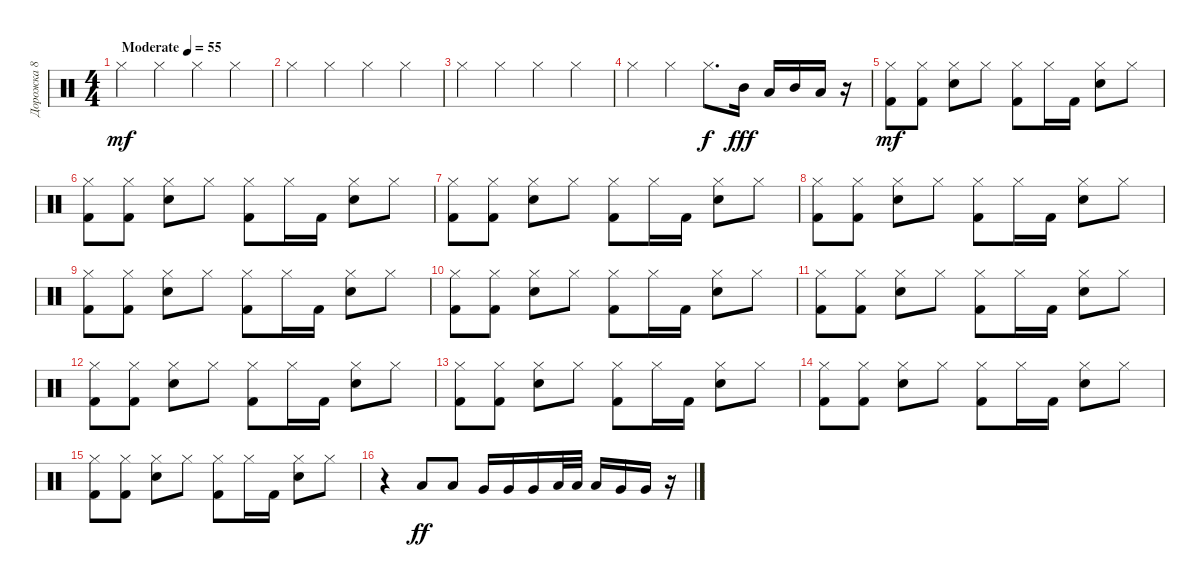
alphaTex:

\track ("Дорожка 8" "Дорожка 8") {instrument percussion}
\staff {score}
\articulation defaults
\ts (4 4)
\tempo (55 "Moderate")
\clef neutral
\ks aminor "Hi-Hat (closed)".4{dy mf} "Hi-Hat (closed)".4 "Hi-Hat (closed)".4 "Hi-Hat (closed)".4
|
"Hi-Hat (closed)".4 "Hi-Hat (closed)".4 "Hi-Hat (closed)".4 "Hi-Hat (closed)".4 |
"Hi-Hat (closed)".4 "Hi-Hat (closed)".4 "Hi-Hat (closed)".4 "Hi-Hat (closed)".4 |
"Hi-Hat (closed)".4 "Hi-Hat (closed)".4 "Hi-Hat (closed)".8{d dy f} "Mid Tom (hit)".16{dy fff} "Low Tom (hit)".16 "Mid Tom (hit)".16 "Low Tom (hit)".16 r.16 |
("Hi-Hat (closed)" "Kick (hit) 2").8{dy mf} ("Hi-Hat (closed)" "Kick (hit) 2").8 ("Hi-Hat (closed)" "Snare (hit) 2").8 "Hi-Hat (closed)".8 ("Hi-Hat (closed)" "Kick (hit) 2").8 "Hi-Hat (closed)".16 "Kick (hit) 2".16 ("Hi-Hat (closed)" "Snare (hit) 2").8 "Hi-Hat (closed)".8 |
("Hi-Hat (closed)" "Kick (hit) 2").8 ("Hi-Hat (closed)" "Kick (hit) 2").8 ("Hi-Hat (closed)" "Snare (hit) 2").8 "Hi-Hat (closed)".8 ("Hi-Hat (closed)" "Kick (hit) 2").8 "Hi-Hat (closed)".16 "Kick (hit) 2".16 ("Hi-Hat (closed)" "Snare (hit) 2").8 "Hi-Hat (closed)".8 |
("Hi-Hat (closed)" "Kick (hit) 2").8 ("Hi-Hat (closed)" "Kick (hit) 2").8 ("Hi-Hat (closed)" "Snare (hit) 2").8 "Hi-Hat (closed)".8 ("Hi-Hat (closed)" "Kick (hit) 2").8 "Hi-Hat (closed)".16 "Kick (hit) 2".16 ("Hi-Hat (closed)" "Snare (hit) 2").8 "Hi-Hat (closed)".8 |
("Hi-Hat (closed)" "Kick (hit) 2").8 ("Hi-Hat (closed)" "Kick (hit) 2").8 ("Hi-Hat (closed)" "Snare (hit) 2").8 "Hi-Hat (closed)".8 ("Hi-Hat (closed)" "Kick (hit) 2").8 "Hi-Hat (closed)".16 "Kick (hit) 2".16 ("Hi-Hat (closed)" "Snare (hit) 2").8 "Hi-Hat (closed)".8 |
("Hi-Hat (closed)" "Kick (hit) 2").8 ("Hi-Hat (closed)" "Kick (hit) 2").8 ("Hi-Hat (closed)" "Snare (hit) 2").8 "Hi-Hat (closed)".8 ("Hi-Hat (closed)" "Kick (hit) 2").8 "Hi-Hat (closed)".16 "Kick (hit) 2".16 ("Hi-Hat (closed)" "Snare (hit) 2").8 "Hi-Hat (closed)".8 |
("Hi-Hat (closed)" "Kick (hit) 2").8 ("Hi-Hat (closed)" "Kick (hit) 2").8 ("Hi-Hat (closed)" "Snare (hit) 2").8 "Hi-Hat (closed)".8 ("Hi-Hat (closed)" "Kick (hit) 2").8 "Hi-Hat (closed)".16 "Kick (hit) 2".16 ("Hi-Hat (closed)" "Snare (hit) 2").8 "Hi-Hat (closed)".8 |
("Hi-Hat (closed)" "Kick (hit) 2").8 ("Hi-Hat (closed)" "Kick (hit) 2").8 ("Hi-Hat (closed)" "Snare (hit) 2").8 "Hi-Hat (closed)".8 ("Hi-Hat (closed)" "Kick (hit) 2").8 "Hi-Hat (closed)".16 "Kick (hit) 2".16 ("Hi-Hat (closed)" "Snare (hit) 2").8 "Hi-Hat (closed)".8 |
("Hi-Hat (closed)" "Kick (hit) 2").8 ("Hi-Hat (closed)" "Kick (hit) 2").8 ("Hi-Hat (closed)" "Snare (hit) 2").8 "Hi-Hat (closed)".8 ("Hi-Hat (closed)" "Kick (hit) 2").8 "Hi-Hat (closed)".16 "Kick (hit) 2".16 ("Hi-Hat (closed)" "Snare (hit) 2").8 "Hi-Hat (closed)".8 |
("Hi-Hat (closed)" "Kick (hit) 2").8 ("Hi-Hat (closed)" "Kick (hit) 2").8 ("Hi-Hat (closed)" "Snare (hit) 2").8 "Hi-Hat (closed)".8 ("Hi-Hat (closed)" "Kick (hit) 2").8 "Hi-Hat (closed)".16 "Kick (hit) 2".16 ("Hi-Hat (closed)" "Snare (hit) 2").8 "Hi-Hat (closed)".8 |
("Hi-Hat (closed)" "Kick (hit) 2").8 ("Hi-Hat (closed)" "Kick (hit) 2").8 ("Hi-Hat (closed)" "Snare (hit) 2").8 "Hi-Hat (closed)".8 ("Hi-Hat (closed)" "Kick (hit) 2").8 "Hi-Hat (closed)".16 "Kick (hit) 2".16 ("Hi-Hat (closed)" "Snare (hit) 2").8 "Hi-Hat (closed)".8 |
("Hi-Hat (closed)" "Kick (hit) 2").8 ("Hi-Hat (closed)" "Kick (hit) 2").8 ("Hi-Hat (closed)" "Snare (hit) 2").8 "Hi-Hat (closed)".8 ("Hi-Hat (closed)" "Kick (hit) 2").8 "Hi-Hat (closed)".16 "Kick (hit) 2".16 ("Hi-Hat (closed)" "Snare (hit) 2").8 "Hi-Hat (closed)".8 |
r.4 "Low Tom (hit)".8{dy ff} "Low Tom (hit)".8 "Very Low Tom (hit)".16 "Very Low Tom (hit)".16 "Very Low Tom (hit)".16 "Low Tom (hit)".32 "Low Tom (hit)".32 "Low Tom (hit)".16 "Very Low Tom (hit)".16 "Very Low Tom (hit)".16 r.16
